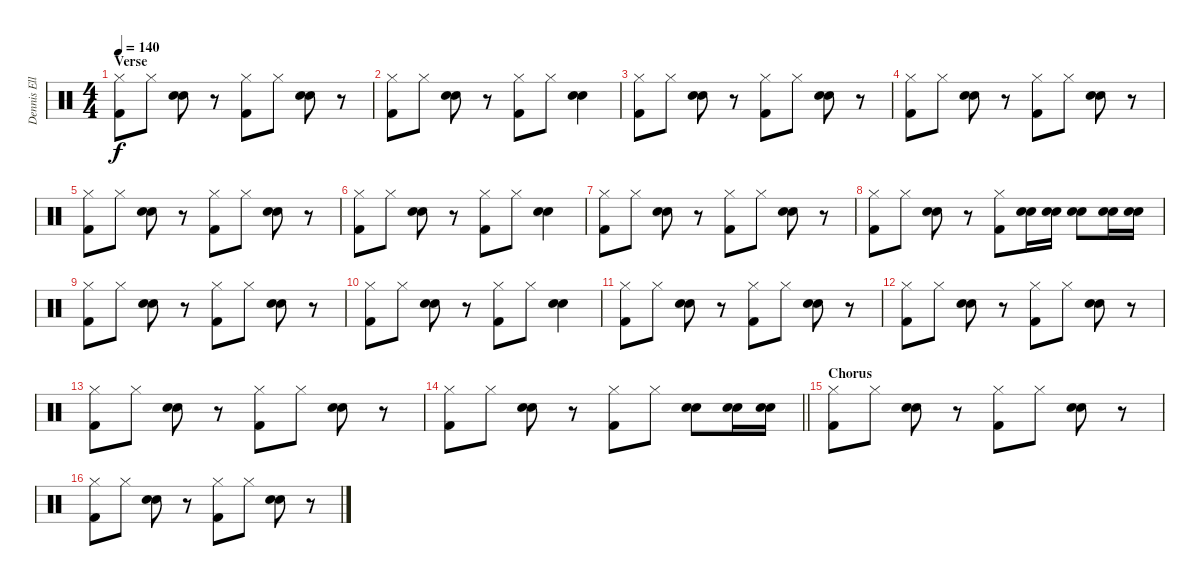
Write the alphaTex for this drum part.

\track ("Dennis Elliott (Drums)" "Dennis Ell") {instrument percussion}
\staff {score}
\articulation defaults
\ts (4 4)
\section ("" "Verse")
\tempo 140
\clef neutral
\ks c
("Hi-Hat (closed)" "Kick (hit) 2").8{dy f} "Hi-Hat (closed)".8 ("Electric Snare (hit)" "Snare (hit) 2").8 r.8 ("Hi-Hat (closed)" "Kick (hit) 2").8 "Hi-Hat (closed)".8 ("Electric Snare (hit)" "Snare (hit) 2").8 r.8 |
("Hi-Hat (closed)" "Kick (hit) 2").8 "Hi-Hat (closed)".8 ("Electric Snare (hit)" "Snare (hit) 2").8 r.8 ("Hi-Hat (closed)" "Kick (hit) 2").8 "Hi-Hat (closed)".8 ("Electric Snare (hit)" "Snare (hit) 2").4 |
("Hi-Hat (closed)" "Kick (hit) 2").8 "Hi-Hat (closed)".8 ("Electric Snare (hit)" "Snare (hit) 2").8 r.8 ("Hi-Hat (closed)" "Kick (hit) 2").8 "Hi-Hat (closed)".8 ("Electric Snare (hit)" "Snare (hit) 2").8 r.8 |
("Hi-Hat (closed)" "Kick (hit) 2").8 "Hi-Hat (closed)".8 ("Electric Snare (hit)" "Snare (hit) 2").8 r.8 ("Hi-Hat (closed)" "Kick (hit) 2").8 "Hi-Hat (closed)".8 ("Electric Snare (hit)" "Snare (hit) 2").8 r.8 |
("Hi-Hat (closed)" "Kick (hit) 2").8 "Hi-Hat (closed)".8 ("Electric Snare (hit)" "Snare (hit) 2").8 r.8 ("Hi-Hat (closed)" "Kick (hit) 2").8 "Hi-Hat (closed)".8 ("Electric Snare (hit)" "Snare (hit) 2").8 r.8 |
("Hi-Hat (closed)" "Kick (hit) 2").8 "Hi-Hat (closed)".8 ("Electric Snare (hit)" "Snare (hit) 2").8 r.8 ("Hi-Hat (closed)" "Kick (hit) 2").8 "Hi-Hat (closed)".8 ("Electric Snare (hit)" "Snare (hit) 2").4 |
("Hi-Hat (closed)" "Kick (hit) 2").8 "Hi-Hat (closed)".8 ("Electric Snare (hit)" "Snare (hit) 2").8 r.8 ("Hi-Hat (closed)" "Kick (hit) 2").8 "Hi-Hat (closed)".8 ("Electric Snare (hit)" "Snare (hit) 2").8 r.8 |
("Hi-Hat (closed)" "Kick (hit) 2").8 "Hi-Hat (closed)".8 ("Electric Snare (hit)" "Snare (hit) 2").8 r.8 ("Hi-Hat (closed)" "Kick (hit) 2").8 ("Electric Snare (hit)" "Snare (hit) 2").16 ("Electric Snare (hit)" "Snare (hit) 2").16 ("Electric Snare (hit)" "Snare (hit) 2").8 ("Electric Snare (hit)" "Snare (hit) 2").16 ("Electric Snare (hit)" "Snare (hit) 2").16 |
("Hi-Hat (closed)" "Kick (hit) 2").8 "Hi-Hat (closed)".8 ("Electric Snare (hit)" "Snare (hit) 2").8 r.8 ("Hi-Hat (closed)" "Kick (hit) 2").8 "Hi-Hat (closed)".8 ("Electric Snare (hit)" "Snare (hit) 2").8 r.8 |
("Hi-Hat (closed)" "Kick (hit) 2").8 "Hi-Hat (closed)".8 ("Electric Snare (hit)" "Snare (hit) 2").8 r.8 ("Hi-Hat (closed)" "Kick (hit) 2").8 "Hi-Hat (closed)".8 ("Electric Snare (hit)" "Snare (hit) 2").4 |
("Hi-Hat (closed)" "Kick (hit) 2").8 "Hi-Hat (closed)".8 ("Electric Snare (hit)" "Snare (hit) 2").8 r.8 ("Hi-Hat (closed)" "Kick (hit) 2").8 "Hi-Hat (closed)".8 ("Electric Snare (hit)" "Snare (hit) 2").8 r.8 |
("Hi-Hat (closed)" "Kick (hit) 2").8 "Hi-Hat (closed)".8 ("Electric Snare (hit)" "Snare (hit) 2").8 r.8 ("Hi-Hat (closed)" "Kick (hit) 2").8 "Hi-Hat (closed)".8 ("Electric Snare (hit)" "Snare (hit) 2").8 r.8 |
("Hi-Hat (closed)" "Kick (hit) 2").8 "Hi-Hat (closed)".8 ("Electric Snare (hit)" "Snare (hit) 2").8 r.8 ("Hi-Hat (closed)" "Kick (hit) 2").8 "Hi-Hat (closed)".8 ("Electric Snare (hit)" "Snare (hit) 2").8 r.8 |
\barLineRight lightlight
("Hi-Hat (closed)" "Kick (hit) 2").8 "Hi-Hat (closed)".8 ("Electric Snare (hit)" "Snare (hit) 2").8 r.8 ("Hi-Hat (closed)" "Kick (hit) 2").8 "Hi-Hat (closed)".8 ("Electric Snare (hit)" "Snare (hit) 2").8 ("Electric Snare (hit)" "Snare (hit) 2").16 ("Electric Snare (hit)" "Snare (hit) 2").16 |
\section ("" "Chorus")
("Hi-Hat (closed)" "Kick (hit) 2").8 "Hi-Hat (closed)".8 ("Electric Snare (hit)" "Snare (hit) 2").8 r.8 ("Hi-Hat (closed)" "Kick (hit) 2").8 "Hi-Hat (closed)".8 ("Electric Snare (hit)" "Snare (hit) 2").8 r.8 |
("Hi-Hat (closed)" "Kick (hit) 2").8 "Hi-Hat (closed)".8 ("Electric Snare (hit)" "Snare (hit) 2").8 r.8 ("Hi-Hat (closed)" "Kick (hit) 2").8 "Hi-Hat (closed)".8 ("Electric Snare (hit)" "Snare (hit) 2").8 r.8
